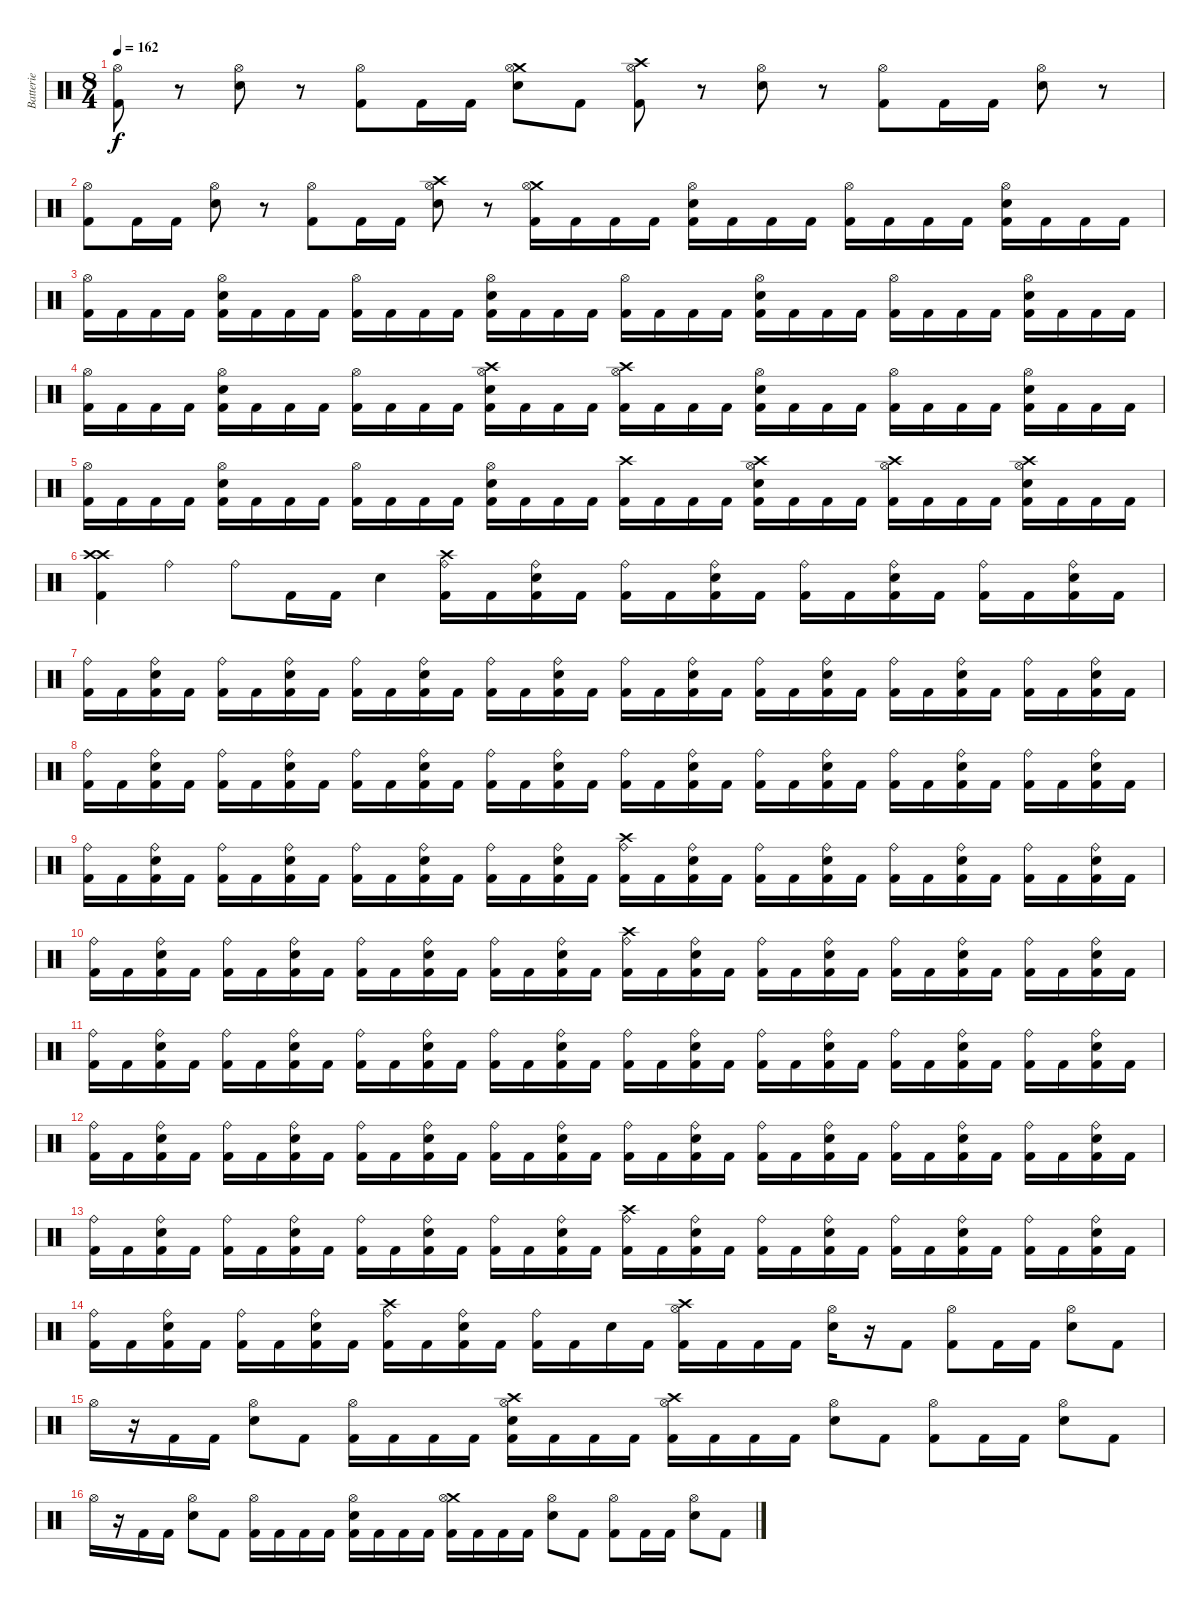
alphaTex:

\track ("Batterie" "Batterie") {instrument percussion}
\staff {score}
\articulation defaults
\ts (8 4)
\tempo 162
\clef neutral
\ks c
("Hi-Hat (open)" "Kick (hit) 2").8{dy f} r.8 ("Hi-Hat (open)" "Electric Snare (hit)").8 r.8 ("Hi-Hat (open)" "Kick (hit) 2").8 "Kick (hit) 2".16 "Kick (hit) 2".16 ("Crash medium (hit)" "Hi-Hat (open)" "Electric Snare (hit)").8 "Kick (hit) 2".8 ("Crash high (hit)" "Hi-Hat (open)" "Kick (hit) 2").8 r.8 ("Hi-Hat (open)" "Electric Snare (hit)").8 r.8 ("Hi-Hat (open)" "Kick (hit) 2").8 "Kick (hit) 2".16 "Kick (hit) 2".16 ("Hi-Hat (open)" "Electric Snare (hit)").8 r.8 |
("Hi-Hat (open)" "Kick (hit) 2").8 "Kick (hit) 2".16 "Kick (hit) 2".16 ("Hi-Hat (open)" "Electric Snare (hit)").8 r.8 ("Hi-Hat (open)" "Kick (hit) 2").8 "Kick (hit) 2".16 "Kick (hit) 2".16 ("Crash high (hit)" "Hi-Hat (open)" "Electric Snare (hit)").8 r.8 ("Crash medium (hit)" "Hi-Hat (open)" "Kick (hit) 2").16 "Kick (hit) 2".16 "Kick (hit) 2".16 "Kick (hit) 2".16 ("Hi-Hat (open)" "Electric Snare (hit)" "Kick (hit) 2").16 "Kick (hit) 2".16 "Kick (hit) 2".16 "Kick (hit) 2".16 ("Hi-Hat (open)" "Kick (hit) 2").16 "Kick (hit) 2".16 "Kick (hit) 2".16 "Kick (hit) 2".16 ("Hi-Hat (open)" "Electric Snare (hit)" "Kick (hit) 2").16 "Kick (hit) 2".16 "Kick (hit) 2".16 "Kick (hit) 2".16 |
("Hi-Hat (open)" "Kick (hit) 2").16 "Kick (hit) 2".16 "Kick (hit) 2".16 "Kick (hit) 2".16 ("Electric Snare (hit)" "Hi-Hat (open)" "Kick (hit) 2").16 "Kick (hit) 2".16 "Kick (hit) 2".16 "Kick (hit) 2".16 ("Hi-Hat (open)" "Kick (hit) 2").16 "Kick (hit) 2".16 "Kick (hit) 2".16 "Kick (hit) 2".16 ("Electric Snare (hit)" "Hi-Hat (open)" "Kick (hit) 2").16 "Kick (hit) 2".16 "Kick (hit) 2".16 "Kick (hit) 2".16 ("Hi-Hat (open)" "Kick (hit) 2").16 "Kick (hit) 2".16 "Kick (hit) 2".16 "Kick (hit) 2".16 ("Electric Snare (hit)" "Hi-Hat (open)" "Kick (hit) 2").16 "Kick (hit) 2".16 "Kick (hit) 2".16 "Kick (hit) 2".16 ("Hi-Hat (open)" "Kick (hit) 2").16 "Kick (hit) 2".16 "Kick (hit) 2".16 "Kick (hit) 2".16 ("Electric Snare (hit)" "Hi-Hat (open)" "Kick (hit) 2").16 "Kick (hit) 2".16 "Kick (hit) 2".16 "Kick (hit) 2".16 |
("Hi-Hat (open)" "Kick (hit) 2").16 "Kick (hit) 2".16 "Kick (hit) 2".16 "Kick (hit) 2".16 ("Electric Snare (hit)" "Hi-Hat (open)" "Kick (hit) 2").16 "Kick (hit) 2".16 "Kick (hit) 2".16 "Kick (hit) 2".16 ("Hi-Hat (open)" "Kick (hit) 2").16 "Kick (hit) 2".16 "Kick (hit) 2".16 "Kick (hit) 2".16 ("Crash high (hit)" "Electric Snare (hit)" "Hi-Hat (open)" "Kick (hit) 2").16 "Kick (hit) 2".16 "Kick (hit) 2".16 "Kick (hit) 2".16 ("Crash high (hit)" "Hi-Hat (open)" "Kick (hit) 2").16 "Kick (hit) 2".16 "Kick (hit) 2".16 "Kick (hit) 2".16 ("Electric Snare (hit)" "Hi-Hat (open)" "Kick (hit) 2").16 "Kick (hit) 2".16 "Kick (hit) 2".16 "Kick (hit) 2".16 ("Hi-Hat (open)" "Kick (hit) 2").16 "Kick (hit) 2".16 "Kick (hit) 2".16 "Kick (hit) 2".16 ("Electric Snare (hit)" "Hi-Hat (open)" "Kick (hit) 2").16 "Kick (hit) 2".16 "Kick (hit) 2".16 "Kick (hit) 2".16 |
("Hi-Hat (open)" "Kick (hit) 2").16 "Kick (hit) 2".16 "Kick (hit) 2".16 "Kick (hit) 2".16 ("Electric Snare (hit)" "Hi-Hat (open)" "Kick (hit) 2").16 "Kick (hit) 2".16 "Kick (hit) 2".16 "Kick (hit) 2".16 ("Hi-Hat (open)" "Kick (hit) 2").16 "Kick (hit) 2".16 "Kick (hit) 2".16 "Kick (hit) 2".16 ("Electric Snare (hit)" "Hi-Hat (open)" "Kick (hit) 2").16 "Kick (hit) 2".16 "Kick (hit) 2".16 "Kick (hit) 2".16 ("Crash high (hit)" "Kick (hit) 2").16 "Kick (hit) 2".16 "Kick (hit) 2".16 "Kick (hit) 2".16 ("Crash high (hit)" "Electric Snare (hit)" "Hi-Hat (open)" "Kick (hit) 2").16 "Kick (hit) 2".16 "Kick (hit) 2".16 "Kick (hit) 2".16 ("Crash high (hit)" "Hi-Hat (open)" "Kick (hit) 2").16 "Kick (hit) 2".16 "Kick (hit) 2".16 "Kick (hit) 2".16 ("Crash high (hit)" "Electric Snare (hit)" "Hi-Hat (open)" "Kick (hit) 2").16 "Kick (hit) 2".16 "Kick (hit) 2".16 "Kick (hit) 2".16 |
("Crash high (hit)" "Crash high (hit)" "Kick (hit) 2").4 "Ride (bell)".4 "Ride (bell)".8 "Kick (hit) 2".16 "Kick (hit) 2".16 "Electric Snare (hit)".4 ("Crash high (hit)" "Ride (bell)" "Kick (hit) 2").16 "Kick (hit) 2".16 ("Ride (bell)" "Electric Snare (hit)" "Kick (hit) 2").16 "Kick (hit) 2".16 ("Ride (bell)" "Kick (hit) 2").16 "Kick (hit) 2".16 ("Ride (bell)" "Electric Snare (hit)" "Kick (hit) 2").16 "Kick (hit) 2".16 ("Ride (bell)" "Kick (hit) 2").16 "Kick (hit) 2".16 ("Ride (bell)" "Electric Snare (hit)" "Kick (hit) 2").16 "Kick (hit) 2".16 ("Ride (bell)" "Kick (hit) 2").16 "Kick (hit) 2".16 ("Ride (bell)" "Electric Snare (hit)" "Kick (hit) 2").16 "Kick (hit) 2".16 |
("Ride (bell)" "Kick (hit) 2").16 "Kick (hit) 2".16 ("Ride (bell)" "Electric Snare (hit)" "Kick (hit) 2").16 "Kick (hit) 2".16 ("Ride (bell)" "Kick (hit) 2").16 "Kick (hit) 2".16 ("Ride (bell)" "Electric Snare (hit)" "Kick (hit) 2").16 "Kick (hit) 2".16 ("Ride (bell)" "Kick (hit) 2").16 "Kick (hit) 2".16 ("Ride (bell)" "Electric Snare (hit)" "Kick (hit) 2").16 "Kick (hit) 2".16 ("Ride (bell)" "Kick (hit) 2").16 "Kick (hit) 2".16 ("Ride (bell)" "Electric Snare (hit)" "Kick (hit) 2").16 "Kick (hit) 2".16 ("Ride (bell)" "Kick (hit) 2").16 "Kick (hit) 2".16 ("Ride (bell)" "Electric Snare (hit)" "Kick (hit) 2").16 "Kick (hit) 2".16 ("Ride (bell)" "Kick (hit) 2").16 "Kick (hit) 2".16 ("Ride (bell)" "Electric Snare (hit)" "Kick (hit) 2").16 "Kick (hit) 2".16 ("Ride (bell)" "Kick (hit) 2").16 "Kick (hit) 2".16 ("Ride (bell)" "Electric Snare (hit)" "Kick (hit) 2").16 "Kick (hit) 2".16 ("Ride (bell)" "Kick (hit) 2").16 "Kick (hit) 2".16 ("Ride (bell)" "Electric Snare (hit)" "Kick (hit) 2").16 "Kick (hit) 2".16 |
("Ride (bell)" "Kick (hit) 2").16 "Kick (hit) 2".16 ("Ride (bell)" "Electric Snare (hit)" "Kick (hit) 2").16 "Kick (hit) 2".16 ("Ride (bell)" "Kick (hit) 2").16 "Kick (hit) 2".16 ("Ride (bell)" "Electric Snare (hit)" "Kick (hit) 2").16 "Kick (hit) 2".16 ("Ride (bell)" "Kick (hit) 2").16 "Kick (hit) 2".16 ("Ride (bell)" "Electric Snare (hit)" "Kick (hit) 2").16 "Kick (hit) 2".16 ("Ride (bell)" "Kick (hit) 2").16 "Kick (hit) 2".16 ("Ride (bell)" "Electric Snare (hit)" "Kick (hit) 2").16 "Kick (hit) 2".16 ("Ride (bell)" "Kick (hit) 2").16 "Kick (hit) 2".16 ("Ride (bell)" "Electric Snare (hit)" "Kick (hit) 2").16 "Kick (hit) 2".16 ("Ride (bell)" "Kick (hit) 2").16 "Kick (hit) 2".16 ("Ride (bell)" "Electric Snare (hit)" "Kick (hit) 2").16 "Kick (hit) 2".16 ("Ride (bell)" "Kick (hit) 2").16 "Kick (hit) 2".16 ("Ride (bell)" "Electric Snare (hit)" "Kick (hit) 2").16 "Kick (hit) 2".16 ("Ride (bell)" "Kick (hit) 2").16 "Kick (hit) 2".16 ("Ride (bell)" "Electric Snare (hit)" "Kick (hit) 2").16 "Kick (hit) 2".16 |
("Ride (bell)" "Kick (hit) 2").16 "Kick (hit) 2".16 ("Ride (bell)" "Electric Snare (hit)" "Kick (hit) 2").16 "Kick (hit) 2".16 ("Ride (bell)" "Kick (hit) 2").16 "Kick (hit) 2".16 ("Ride (bell)" "Electric Snare (hit)" "Kick (hit) 2").16 "Kick (hit) 2".16 ("Ride (bell)" "Kick (hit) 2").16 "Kick (hit) 2".16 ("Ride (bell)" "Electric Snare (hit)" "Kick (hit) 2").16 "Kick (hit) 2".16 ("Ride (bell)" "Kick (hit) 2").16 "Kick (hit) 2".16 ("Ride (bell)" "Electric Snare (hit)" "Kick (hit) 2").16 "Kick (hit) 2".16 ("Crash high (hit)" "Ride (bell)" "Kick (hit) 2").16 "Kick (hit) 2".16 ("Ride (bell)" "Electric Snare (hit)" "Kick (hit) 2").16 "Kick (hit) 2".16 ("Ride (bell)" "Kick (hit) 2").16 "Kick (hit) 2".16 ("Ride (bell)" "Electric Snare (hit)" "Kick (hit) 2").16 "Kick (hit) 2".16 ("Ride (bell)" "Kick (hit) 2").16 "Kick (hit) 2".16 ("Ride (bell)" "Electric Snare (hit)" "Kick (hit) 2").16 "Kick (hit) 2".16 ("Ride (bell)" "Kick (hit) 2").16 "Kick (hit) 2".16 ("Ride (bell)" "Electric Snare (hit)" "Kick (hit) 2").16 "Kick (hit) 2".16 |
("Ride (bell)" "Kick (hit) 2").16 "Kick (hit) 2".16 ("Ride (bell)" "Electric Snare (hit)" "Kick (hit) 2").16 "Kick (hit) 2".16 ("Ride (bell)" "Kick (hit) 2").16 "Kick (hit) 2".16 ("Ride (bell)" "Electric Snare (hit)" "Kick (hit) 2").16 "Kick (hit) 2".16 ("Ride (bell)" "Kick (hit) 2").16 "Kick (hit) 2".16 ("Ride (bell)" "Electric Snare (hit)" "Kick (hit) 2").16 "Kick (hit) 2".16 ("Ride (bell)" "Kick (hit) 2").16 "Kick (hit) 2".16 ("Ride (bell)" "Electric Snare (hit)" "Kick (hit) 2").16 "Kick (hit) 2".16 ("Crash high (hit)" "Ride (bell)" "Kick (hit) 2").16 "Kick (hit) 2".16 ("Ride (bell)" "Electric Snare (hit)" "Kick (hit) 2").16 "Kick (hit) 2".16 ("Ride (bell)" "Kick (hit) 2").16 "Kick (hit) 2".16 ("Ride (bell)" "Electric Snare (hit)" "Kick (hit) 2").16 "Kick (hit) 2".16 ("Ride (bell)" "Kick (hit) 2").16 "Kick (hit) 2".16 ("Ride (bell)" "Electric Snare (hit)" "Kick (hit) 2").16 "Kick (hit) 2".16 ("Ride (bell)" "Kick (hit) 2").16 "Kick (hit) 2".16 ("Ride (bell)" "Electric Snare (hit)" "Kick (hit) 2").16 "Kick (hit) 2".16 |
("Ride (bell)" "Kick (hit) 2").16 "Kick (hit) 2".16 ("Ride (bell)" "Electric Snare (hit)" "Kick (hit) 2").16 "Kick (hit) 2".16 ("Ride (bell)" "Kick (hit) 2").16 "Kick (hit) 2".16 ("Ride (bell)" "Electric Snare (hit)" "Kick (hit) 2").16 "Kick (hit) 2".16 ("Ride (bell)" "Kick (hit) 2").16 "Kick (hit) 2".16 ("Ride (bell)" "Electric Snare (hit)" "Kick (hit) 2").16 "Kick (hit) 2".16 ("Ride (bell)" "Kick (hit) 2").16 "Kick (hit) 2".16 ("Ride (bell)" "Electric Snare (hit)" "Kick (hit) 2").16 "Kick (hit) 2".16 ("Ride (bell)" "Kick (hit) 2").16 "Kick (hit) 2".16 ("Ride (bell)" "Electric Snare (hit)" "Kick (hit) 2").16 "Kick (hit) 2".16 ("Ride (bell)" "Kick (hit) 2").16 "Kick (hit) 2".16 ("Ride (bell)" "Electric Snare (hit)" "Kick (hit) 2").16 "Kick (hit) 2".16 ("Ride (bell)" "Kick (hit) 2").16 "Kick (hit) 2".16 ("Ride (bell)" "Electric Snare (hit)" "Kick (hit) 2").16 "Kick (hit) 2".16 ("Ride (bell)" "Kick (hit) 2").16 "Kick (hit) 2".16 ("Ride (bell)" "Electric Snare (hit)" "Kick (hit) 2").16 "Kick (hit) 2".16 |
("Ride (bell)" "Kick (hit) 2").16 "Kick (hit) 2".16 ("Ride (bell)" "Electric Snare (hit)" "Kick (hit) 2").16 "Kick (hit) 2".16 ("Ride (bell)" "Kick (hit) 2").16 "Kick (hit) 2".16 ("Ride (bell)" "Electric Snare (hit)" "Kick (hit) 2").16 "Kick (hit) 2".16 ("Ride (bell)" "Kick (hit) 2").16 "Kick (hit) 2".16 ("Ride (bell)" "Electric Snare (hit)" "Kick (hit) 2").16 "Kick (hit) 2".16 ("Ride (bell)" "Kick (hit) 2").16 "Kick (hit) 2".16 ("Ride (bell)" "Electric Snare (hit)" "Kick (hit) 2").16 "Kick (hit) 2".16 ("Ride (bell)" "Kick (hit) 2").16 "Kick (hit) 2".16 ("Ride (bell)" "Electric Snare (hit)" "Kick (hit) 2").16 "Kick (hit) 2".16 ("Ride (bell)" "Kick (hit) 2").16 "Kick (hit) 2".16 ("Ride (bell)" "Electric Snare (hit)" "Kick (hit) 2").16 "Kick (hit) 2".16 ("Ride (bell)" "Kick (hit) 2").16 "Kick (hit) 2".16 ("Ride (bell)" "Electric Snare (hit)" "Kick (hit) 2").16 "Kick (hit) 2".16 ("Ride (bell)" "Kick (hit) 2").16 "Kick (hit) 2".16 ("Ride (bell)" "Electric Snare (hit)" "Kick (hit) 2").16 "Kick (hit) 2".16 |
("Ride (bell)" "Kick (hit) 2").16 "Kick (hit) 2".16 ("Ride (bell)" "Electric Snare (hit)" "Kick (hit) 2").16 "Kick (hit) 2".16 ("Ride (bell)" "Kick (hit) 2").16 "Kick (hit) 2".16 ("Ride (bell)" "Electric Snare (hit)" "Kick (hit) 2").16 "Kick (hit) 2".16 ("Ride (bell)" "Kick (hit) 2").16 "Kick (hit) 2".16 ("Ride (bell)" "Electric Snare (hit)" "Kick (hit) 2").16 "Kick (hit) 2".16 ("Ride (bell)" "Kick (hit) 2").16 "Kick (hit) 2".16 ("Ride (bell)" "Electric Snare (hit)" "Kick (hit) 2").16 "Kick (hit) 2".16 ("Crash high (hit)" "Ride (bell)" "Kick (hit) 2").16 "Kick (hit) 2".16 ("Ride (bell)" "Electric Snare (hit)" "Kick (hit) 2").16 "Kick (hit) 2".16 ("Ride (bell)" "Kick (hit) 2").16 "Kick (hit) 2".16 ("Ride (bell)" "Electric Snare (hit)" "Kick (hit) 2").16 "Kick (hit) 2".16 ("Ride (bell)" "Kick (hit) 2").16 "Kick (hit) 2".16 ("Ride (bell)" "Electric Snare (hit)" "Kick (hit) 2").16 "Kick (hit) 2".16 ("Ride (bell)" "Kick (hit) 2").16 "Kick (hit) 2".16 ("Ride (bell)" "Electric Snare (hit)" "Kick (hit) 2").16 "Kick (hit) 2".16 |
("Ride (bell)" "Kick (hit) 2").16 "Kick (hit) 2".16 ("Ride (bell)" "Electric Snare (hit)" "Kick (hit) 2").16 "Kick (hit) 2".16 ("Ride (bell)" "Kick (hit) 2").16 "Kick (hit) 2".16 ("Ride (bell)" "Electric Snare (hit)" "Kick (hit) 2").16 "Kick (hit) 2".16 ("Crash high (hit)" "Ride (bell)" "Kick (hit) 2").16 "Kick (hit) 2".16 ("Ride (bell)" "Electric Snare (hit)" "Kick (hit) 2").16 "Kick (hit) 2".16 ("Ride (bell)" "Kick (hit) 2").16 "Kick (hit) 2".16 "Electric Snare (hit)".16 "Kick (hit) 2".16 ("Crash high (hit)" "Hi-Hat (open)" "Kick (hit) 2").16 "Kick (hit) 2".16 "Kick (hit) 2".16 "Kick (hit) 2".16 ("Hi-Hat (open)" "Electric Snare (hit)").16 r.16 "Kick (hit) 2".8 ("Hi-Hat (open)" "Kick (hit) 2").8 "Kick (hit) 2".16 "Kick (hit) 2".16 ("Hi-Hat (open)" "Electric Snare (hit)").8 "Kick (hit) 2".8 |
"Hi-Hat (open)".16 r.16 "Kick (hit) 2".16 "Kick (hit) 2".16 ("Hi-Hat (open)" "Electric Snare (hit)").8 "Kick (hit) 2".8 ("Hi-Hat (open)" "Kick (hit) 2").16 "Kick (hit) 2".16 "Kick (hit) 2".16 "Kick (hit) 2".16 ("Crash high (hit)" "Hi-Hat (open)" "Electric Snare (hit)" "Kick (hit) 2").16 "Kick (hit) 2".16 "Kick (hit) 2".16 "Kick (hit) 2".16 ("Crash high (hit)" "Hi-Hat (open)" "Kick (hit) 2").16 "Kick (hit) 2".16 "Kick (hit) 2".16 "Kick (hit) 2".16 ("Hi-Hat (open)" "Electric Snare (hit)").8 "Kick (hit) 2".8 ("Hi-Hat (open)" "Kick (hit) 2").8 "Kick (hit) 2".16 "Kick (hit) 2".16 ("Hi-Hat (open)" "Electric Snare (hit)").8 "Kick (hit) 2".8 |
"Hi-Hat (open)".16 r.16 "Kick (hit) 2".16 "Kick (hit) 2".16 ("Hi-Hat (open)" "Electric Snare (hit)").8 "Kick (hit) 2".8 ("Hi-Hat (open)" "Kick (hit) 2").16 "Kick (hit) 2".16 "Kick (hit) 2".16 "Kick (hit) 2".16 ("Hi-Hat (open)" "Electric Snare (hit)" "Kick (hit) 2").16 "Kick (hit) 2".16 "Kick (hit) 2".16 "Kick (hit) 2".16 ("Crash medium (hit)" "Hi-Hat (open)" "Kick (hit) 2").16 "Kick (hit) 2".16 "Kick (hit) 2".16 "Kick (hit) 2".16 ("Hi-Hat (open)" "Electric Snare (hit)").8 "Kick (hit) 2".8 ("Hi-Hat (open)" "Kick (hit) 2").8 "Kick (hit) 2".16 "Kick (hit) 2".16 ("Hi-Hat (open)" "Electric Snare (hit)").8 "Kick (hit) 2".8
